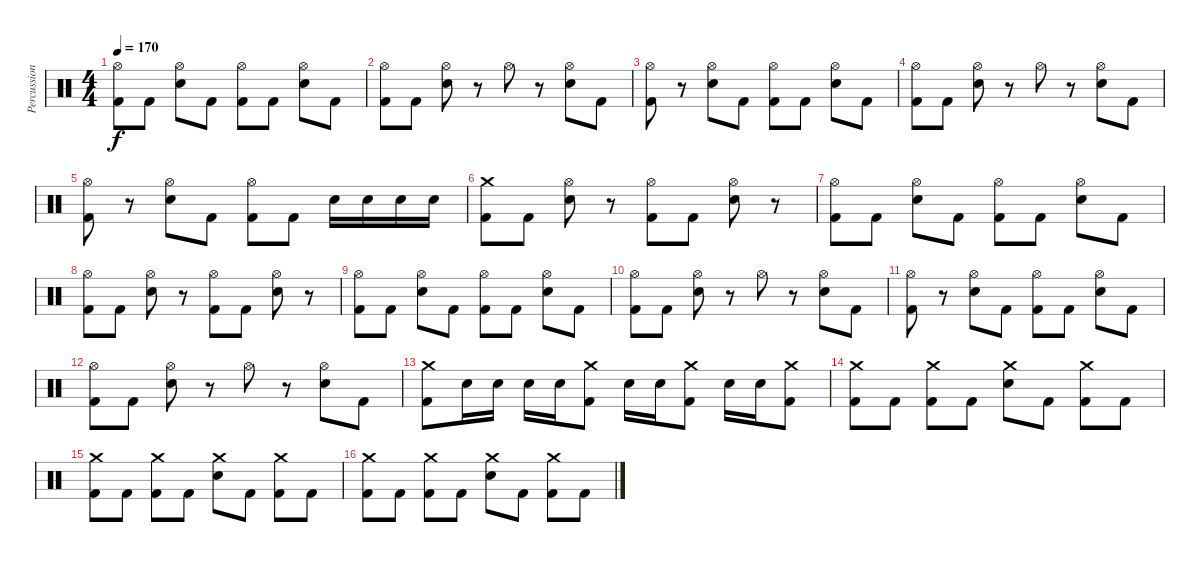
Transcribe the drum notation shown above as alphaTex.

\track ("Percussion" "Percussion") {instrument percussion}
\staff {score}
\articulation defaults
\ts (4 4)
\tempo 170
\clef neutral
\ks c
("Hi-Hat (open)" "Kick (hit) 2").8{dy f} "Kick (hit) 2".8 ("Hi-Hat (open)" "Electric Snare (hit)").8 "Kick (hit) 2".8 ("Hi-Hat (open)" "Kick (hit) 2").8 "Kick (hit) 2".8 ("Hi-Hat (open)" "Electric Snare (hit)").8 "Kick (hit) 2".8 |
("Hi-Hat (open)" "Kick (hit) 2").8 "Kick (hit) 2".8 ("Hi-Hat (open)" "Electric Snare (hit)").8 r.8 "Hi-Hat (open)".8 r.8 ("Hi-Hat (open)" "Electric Snare (hit)").8 "Kick (hit) 2".8 |
("Hi-Hat (open)" "Kick (hit) 2").8 r.8 ("Hi-Hat (open)" "Electric Snare (hit)").8 "Kick (hit) 2".8 ("Hi-Hat (open)" "Kick (hit) 2").8 "Kick (hit) 2".8 ("Hi-Hat (open)" "Electric Snare (hit)").8 "Kick (hit) 2".8 |
("Hi-Hat (open)" "Kick (hit) 2").8 "Kick (hit) 2".8 ("Hi-Hat (open)" "Electric Snare (hit)").8 r.8 "Hi-Hat (open)".8 r.8 ("Hi-Hat (open)" "Electric Snare (hit)").8 "Kick (hit) 2".8 |
("Hi-Hat (open)" "Kick (hit) 2").8 r.8 ("Hi-Hat (open)" "Electric Snare (hit)").8 "Kick (hit) 2".8 ("Hi-Hat (open)" "Kick (hit) 2").8 "Kick (hit) 2".8 "Electric Snare (hit)".16 "Electric Snare (hit)".16 "Electric Snare (hit)".16 "Electric Snare (hit)".16 |
("Crash medium (hit)" "Kick (hit) 2").8 "Kick (hit) 2".8 ("Hi-Hat (open)" "Electric Snare (hit)").8 r.8 ("Hi-Hat (open)" "Kick (hit) 2").8 "Kick (hit) 2".8 ("Hi-Hat (open)" "Electric Snare (hit)").8 r.8 |
("Hi-Hat (open)" "Kick (hit) 2").8 "Kick (hit) 2".8 ("Hi-Hat (open)" "Electric Snare (hit)").8 "Kick (hit) 2".8 ("Hi-Hat (open)" "Kick (hit) 2").8 "Kick (hit) 2".8 ("Hi-Hat (open)" "Electric Snare (hit)").8 "Kick (hit) 2".8 |
("Hi-Hat (open)" "Kick (hit) 2").8 "Kick (hit) 2".8 ("Hi-Hat (open)" "Electric Snare (hit)").8 r.8 ("Hi-Hat (open)" "Kick (hit) 2").8 "Kick (hit) 2".8 ("Hi-Hat (open)" "Electric Snare (hit)").8 r.8 |
("Hi-Hat (open)" "Kick (hit) 2").8 "Kick (hit) 2".8 ("Hi-Hat (open)" "Electric Snare (hit)").8 "Kick (hit) 2".8 ("Hi-Hat (open)" "Kick (hit) 2").8 "Kick (hit) 2".8 ("Hi-Hat (open)" "Electric Snare (hit)").8 "Kick (hit) 2".8 |
("Hi-Hat (open)" "Kick (hit) 2").8 "Kick (hit) 2".8 ("Hi-Hat (open)" "Electric Snare (hit)").8 r.8 "Hi-Hat (open)".8 r.8 ("Hi-Hat (open)" "Electric Snare (hit)").8 "Kick (hit) 2".8 |
("Hi-Hat (open)" "Kick (hit) 2").8 r.8 ("Hi-Hat (open)" "Electric Snare (hit)").8 "Kick (hit) 2".8 ("Hi-Hat (open)" "Kick (hit) 2").8 "Kick (hit) 2".8 ("Hi-Hat (open)" "Electric Snare (hit)").8 "Kick (hit) 2".8 |
("Hi-Hat (open)" "Kick (hit) 2").8 "Kick (hit) 2".8 ("Hi-Hat (open)" "Electric Snare (hit)").8 r.8 "Hi-Hat (open)".8 r.8 ("Hi-Hat (open)" "Electric Snare (hit)").8 "Kick (hit) 2".8 |
("Crash medium (hit)" "Kick (hit) 2").8 "Electric Snare (hit)".16 "Electric Snare (hit)".16 "Electric Snare (hit)".16 "Electric Snare (hit)".16 ("Crash medium (hit)" "Kick (hit) 2").8 "Electric Snare (hit)".16 "Electric Snare (hit)".16 ("Crash medium (hit)" "Kick (hit) 2").8 "Electric Snare (hit)".16 "Electric Snare (hit)".16 ("Crash medium (hit)" "Kick (hit) 2").8 |
("Crash medium (hit)" "Kick (hit) 2").8 "Kick (hit) 2".8 ("Crash medium (hit)" "Kick (hit) 2").8 "Kick (hit) 2".8 ("Crash medium (hit)" "Electric Snare (hit)").8 "Kick (hit) 2".8 ("Crash medium (hit)" "Kick (hit) 2").8 "Kick (hit) 2".8 |
("Crash medium (hit)" "Kick (hit) 2").8 "Kick (hit) 2".8 ("Crash medium (hit)" "Kick (hit) 2").8 "Kick (hit) 2".8 ("Crash medium (hit)" "Electric Snare (hit)").8 "Kick (hit) 2".8 ("Crash medium (hit)" "Kick (hit) 2").8 "Kick (hit) 2".8 |
("Crash medium (hit)" "Kick (hit) 2").8 "Kick (hit) 2".8 ("Crash medium (hit)" "Kick (hit) 2").8 "Kick (hit) 2".8 ("Crash medium (hit)" "Electric Snare (hit)").8 "Kick (hit) 2".8 ("Crash medium (hit)" "Kick (hit) 2").8 "Kick (hit) 2".8
